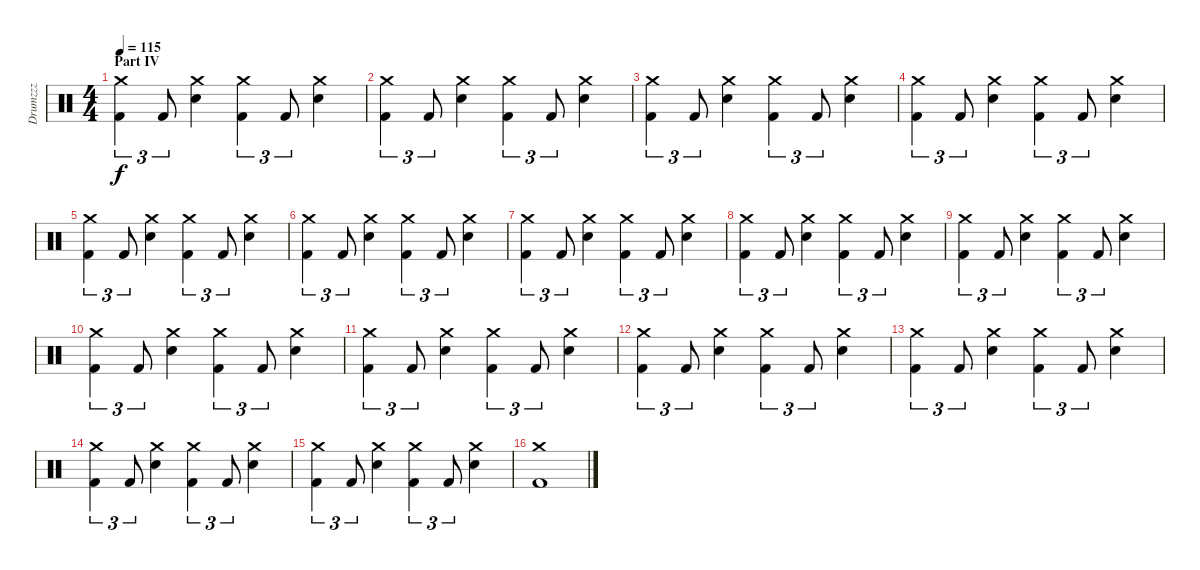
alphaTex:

\track ("Drumzzz" "Drumzzz") {instrument percussion}
\staff {score}
\articulation defaults
\ts (4 4)
\section ("" "Part IV")
\tempo 115
\clef neutral
\ks c
("Crash medium (hit)" "Kick (hit) 2").4{tu (3 2) dy f} "Kick (hit) 2".8{tu (3 2)} ("Crash medium (hit)" "Electric Snare (hit)").4 ("Crash medium (hit)" "Kick (hit) 2").4{tu (3 2)} "Kick (hit) 2".8{tu (3 2)} ("Crash medium (hit)" "Electric Snare (hit)").4 |
("Crash medium (hit)" "Kick (hit) 2").4{tu (3 2)} "Kick (hit) 2".8{tu (3 2)} ("Crash medium (hit)" "Electric Snare (hit)").4 ("Crash medium (hit)" "Kick (hit) 2").4{tu (3 2)} "Kick (hit) 2".8{tu (3 2)} ("Crash medium (hit)" "Electric Snare (hit)").4 |
("Crash medium (hit)" "Kick (hit) 2").4{tu (3 2)} "Kick (hit) 2".8{tu (3 2)} ("Crash medium (hit)" "Electric Snare (hit)").4 ("Crash medium (hit)" "Kick (hit) 2").4{tu (3 2)} "Kick (hit) 2".8{tu (3 2)} ("Crash medium (hit)" "Electric Snare (hit)").4 |
("Crash medium (hit)" "Kick (hit) 2").4{tu (3 2)} "Kick (hit) 2".8{tu (3 2)} ("Crash medium (hit)" "Electric Snare (hit)").4 ("Crash medium (hit)" "Kick (hit) 2").4{tu (3 2)} "Kick (hit) 2".8{tu (3 2)} ("Crash medium (hit)" "Electric Snare (hit)").4 |
("Crash medium (hit)" "Kick (hit) 2").4{tu (3 2)} "Kick (hit) 2".8{tu (3 2)} ("Crash medium (hit)" "Electric Snare (hit)").4 ("Crash medium (hit)" "Kick (hit) 2").4{tu (3 2)} "Kick (hit) 2".8{tu (3 2)} ("Crash medium (hit)" "Electric Snare (hit)").4 |
("Crash medium (hit)" "Kick (hit) 2").4{tu (3 2)} "Kick (hit) 2".8{tu (3 2)} ("Crash medium (hit)" "Electric Snare (hit)").4 ("Crash medium (hit)" "Kick (hit) 2").4{tu (3 2)} "Kick (hit) 2".8{tu (3 2)} ("Crash medium (hit)" "Electric Snare (hit)").4 |
("Crash medium (hit)" "Kick (hit) 2").4{tu (3 2)} "Kick (hit) 2".8{tu (3 2)} ("Crash medium (hit)" "Electric Snare (hit)").4 ("Crash medium (hit)" "Kick (hit) 2").4{tu (3 2)} "Kick (hit) 2".8{tu (3 2)} ("Crash medium (hit)" "Electric Snare (hit)").4 |
("Crash medium (hit)" "Kick (hit) 2").4{tu (3 2)} "Kick (hit) 2".8{tu (3 2)} ("Crash medium (hit)" "Electric Snare (hit)").4 ("Crash medium (hit)" "Kick (hit) 2").4{tu (3 2)} "Kick (hit) 2".8{tu (3 2)} ("Crash medium (hit)" "Electric Snare (hit)").4 |
("Crash medium (hit)" "Kick (hit) 2").4{tu (3 2)} "Kick (hit) 2".8{tu (3 2)} ("Crash medium (hit)" "Electric Snare (hit)").4 ("Crash medium (hit)" "Kick (hit) 2").4{tu (3 2)} "Kick (hit) 2".8{tu (3 2)} ("Crash medium (hit)" "Electric Snare (hit)").4 |
("Crash medium (hit)" "Kick (hit) 2").4{tu (3 2)} "Kick (hit) 2".8{tu (3 2)} ("Crash medium (hit)" "Electric Snare (hit)").4 ("Crash medium (hit)" "Kick (hit) 2").4{tu (3 2)} "Kick (hit) 2".8{tu (3 2)} ("Crash medium (hit)" "Electric Snare (hit)").4 |
("Crash medium (hit)" "Kick (hit) 2").4{tu (3 2)} "Kick (hit) 2".8{tu (3 2)} ("Crash medium (hit)" "Electric Snare (hit)").4 ("Crash medium (hit)" "Kick (hit) 2").4{tu (3 2)} "Kick (hit) 2".8{tu (3 2)} ("Crash medium (hit)" "Electric Snare (hit)").4 |
("Crash medium (hit)" "Kick (hit) 2").4{tu (3 2)} "Kick (hit) 2".8{tu (3 2)} ("Crash medium (hit)" "Electric Snare (hit)").4 ("Crash medium (hit)" "Kick (hit) 2").4{tu (3 2)} "Kick (hit) 2".8{tu (3 2)} ("Crash medium (hit)" "Electric Snare (hit)").4 |
("Crash medium (hit)" "Kick (hit) 2").4{tu (3 2)} "Kick (hit) 2".8{tu (3 2)} ("Crash medium (hit)" "Electric Snare (hit)").4 ("Crash medium (hit)" "Kick (hit) 2").4{tu (3 2)} "Kick (hit) 2".8{tu (3 2)} ("Crash medium (hit)" "Electric Snare (hit)").4 |
("Crash medium (hit)" "Kick (hit) 2").4{tu (3 2)} "Kick (hit) 2".8{tu (3 2)} ("Crash medium (hit)" "Electric Snare (hit)").4 ("Crash medium (hit)" "Kick (hit) 2").4{tu (3 2)} "Kick (hit) 2".8{tu (3 2)} ("Crash medium (hit)" "Electric Snare (hit)").4 |
("Crash medium (hit)" "Kick (hit) 2").4{tu (3 2)} "Kick (hit) 2".8{tu (3 2)} ("Crash medium (hit)" "Electric Snare (hit)").4 ("Crash medium (hit)" "Kick (hit) 2").4{tu (3 2)} "Kick (hit) 2".8{tu (3 2)} ("Crash medium (hit)" "Electric Snare (hit)").4 |
("Crash medium (hit)" "Kick (hit) 2").1
